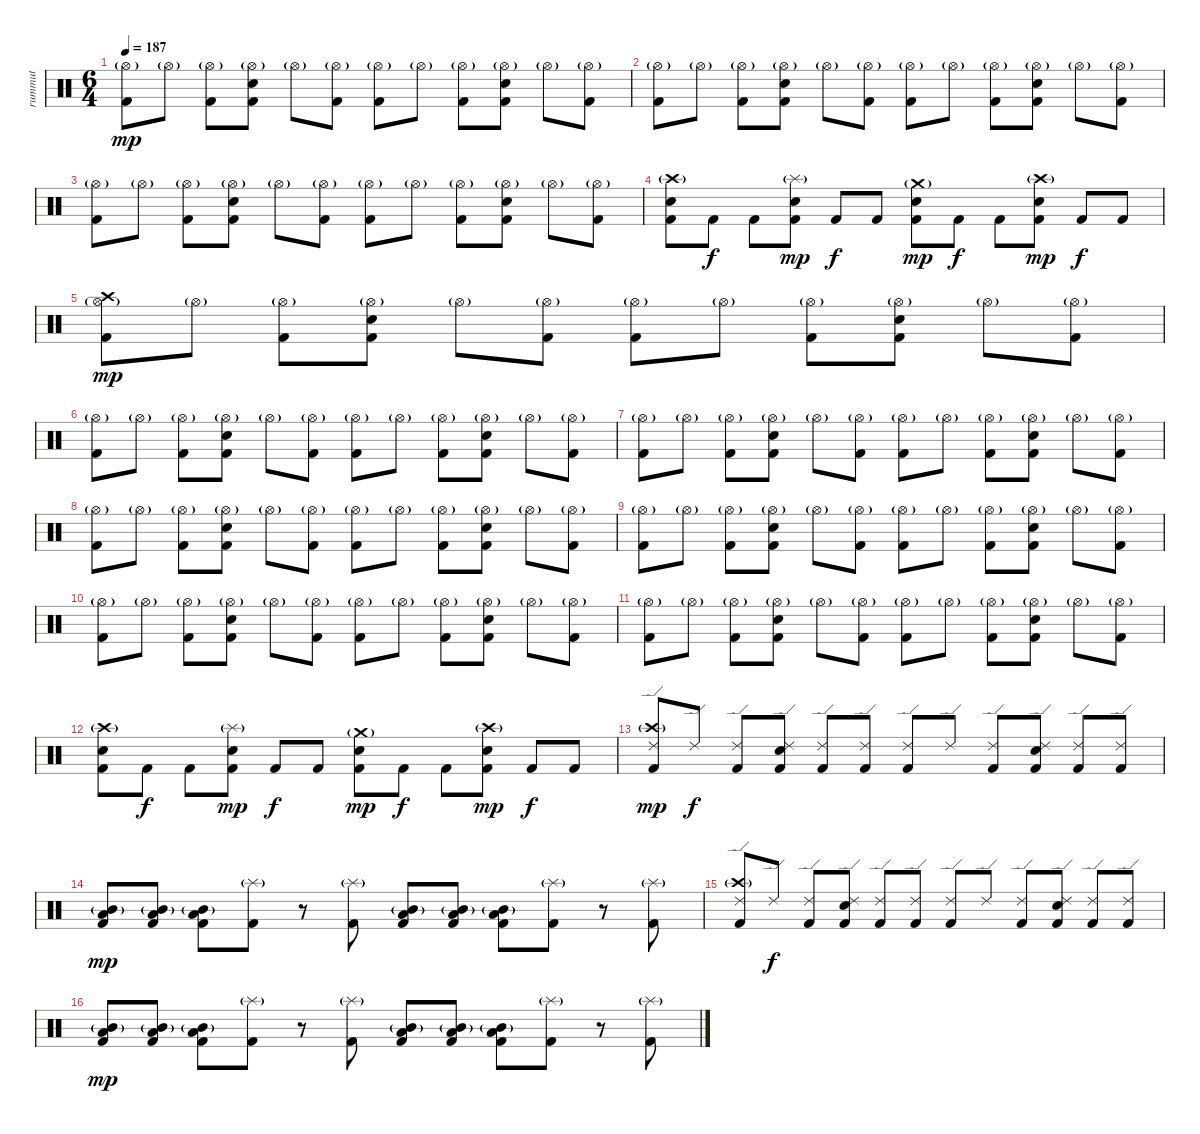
\track ("rummut" "rummut") {instrument percussion}
\staff {score}
\articulation defaults
\ts (6 4)
\tempo 187
\clef neutral
\ks c
("Kick (hit) 2" "Hi-Hat (open)"{g}).8{dy mp} "Hi-Hat (open)"{g}.8 ("Kick (hit) 2" "Hi-Hat (open)"{g}).8 ("Kick (hit) 2" "Hi-Hat (open)"{g} "Snare (hit) 2").8 "Hi-Hat (open)"{g}.8 ("Kick (hit) 2" "Hi-Hat (open)"{g}).8 ("Kick (hit) 2" "Hi-Hat (open)"{g}).8 "Hi-Hat (open)"{g}.8 ("Kick (hit) 2" "Hi-Hat (open)"{g}).8 ("Kick (hit) 2" "Hi-Hat (open)"{g} "Snare (hit) 2").8 "Hi-Hat (open)"{g}.8 ("Kick (hit) 2" "Hi-Hat (open)"{g}).8 |
("Kick (hit) 2" "Hi-Hat (open)"{g}).8 "Hi-Hat (open)"{g}.8 ("Kick (hit) 2" "Hi-Hat (open)"{g}).8 ("Kick (hit) 2" "Hi-Hat (open)"{g} "Snare (hit) 2").8 "Hi-Hat (open)"{g}.8 ("Kick (hit) 2" "Hi-Hat (open)"{g}).8 ("Kick (hit) 2" "Hi-Hat (open)"{g}).8 "Hi-Hat (open)"{g}.8 ("Kick (hit) 2" "Hi-Hat (open)"{g}).8 ("Kick (hit) 2" "Hi-Hat (open)"{g} "Snare (hit) 2").8 "Hi-Hat (open)"{g}.8 ("Kick (hit) 2" "Hi-Hat (open)"{g}).8 |
("Kick (hit) 2" "Hi-Hat (open)"{g}).8 "Hi-Hat (open)"{g}.8 ("Kick (hit) 2" "Hi-Hat (open)"{g}).8 ("Kick (hit) 2" "Hi-Hat (open)"{g} "Snare (hit) 2").8 "Hi-Hat (open)"{g}.8 ("Kick (hit) 2" "Hi-Hat (open)"{g}).8 ("Kick (hit) 2" "Hi-Hat (open)"{g}).8 "Hi-Hat (open)"{g}.8 ("Kick (hit) 2" "Hi-Hat (open)"{g}).8 ("Kick (hit) 2" "Hi-Hat (open)"{g} "Snare (hit) 2").8 "Hi-Hat (open)"{g}.8 ("Kick (hit) 2" "Hi-Hat (open)"{g}).8 |
("Kick (hit) 2" "Crash high (hit)"{g} "Snare (hit) 2").8 "Kick (hit) 2".8{dy f} "Kick (hit) 2".8 ("Kick (hit) 2" "Snare (hit) 2" "Splash (hit)"{g}).8{dy mp} "Kick (hit) 2".8{dy f} "Kick (hit) 2".8 ("Kick (hit) 2" "Snare (hit) 2" "Crash medium (hit)"{g}).8{dy mp} "Kick (hit) 2".8{dy f} "Kick (hit) 2".8 ("Kick (hit) 2" "Snare (hit) 2" "Crash high (hit)"{g}).8{dy mp} "Kick (hit) 2".8{dy f} "Kick (hit) 2".8 |
("Kick (hit) 2" "Hi-Hat (open)"{g} "Crash high (hit)").8{dy mp} "Hi-Hat (open)"{g}.8 ("Kick (hit) 2" "Hi-Hat (open)"{g}).8 ("Kick (hit) 2" "Hi-Hat (open)"{g} "Snare (hit) 2").8 "Hi-Hat (open)"{g}.8 ("Kick (hit) 2" "Hi-Hat (open)"{g}).8 ("Kick (hit) 2" "Hi-Hat (open)"{g}).8 "Hi-Hat (open)"{g}.8 ("Kick (hit) 2" "Hi-Hat (open)"{g}).8 ("Kick (hit) 2" "Hi-Hat (open)"{g} "Snare (hit) 2").8 "Hi-Hat (open)"{g}.8 ("Kick (hit) 2" "Hi-Hat (open)"{g}).8 |
("Kick (hit) 2" "Hi-Hat (open)"{g}).8 "Hi-Hat (open)"{g}.8 ("Kick (hit) 2" "Hi-Hat (open)"{g}).8 ("Kick (hit) 2" "Hi-Hat (open)"{g} "Snare (hit) 2").8 "Hi-Hat (open)"{g}.8 ("Kick (hit) 2" "Hi-Hat (open)"{g}).8 ("Kick (hit) 2" "Hi-Hat (open)"{g}).8 "Hi-Hat (open)"{g}.8 ("Kick (hit) 2" "Hi-Hat (open)"{g}).8 ("Kick (hit) 2" "Hi-Hat (open)"{g} "Snare (hit) 2").8 "Hi-Hat (open)"{g}.8 ("Kick (hit) 2" "Hi-Hat (open)"{g}).8 |
("Kick (hit) 2" "Hi-Hat (open)"{g}).8 "Hi-Hat (open)"{g}.8 ("Kick (hit) 2" "Hi-Hat (open)"{g}).8 ("Kick (hit) 2" "Hi-Hat (open)"{g} "Snare (hit) 2").8 "Hi-Hat (open)"{g}.8 ("Kick (hit) 2" "Hi-Hat (open)"{g}).8 ("Kick (hit) 2" "Hi-Hat (open)"{g}).8 "Hi-Hat (open)"{g}.8 ("Kick (hit) 2" "Hi-Hat (open)"{g}).8 ("Kick (hit) 2" "Hi-Hat (open)"{g} "Snare (hit) 2").8 "Hi-Hat (open)"{g}.8 ("Kick (hit) 2" "Hi-Hat (open)"{g}).8 |
("Kick (hit) 2" "Hi-Hat (open)"{g}).8 "Hi-Hat (open)"{g}.8 ("Kick (hit) 2" "Hi-Hat (open)"{g}).8 ("Kick (hit) 2" "Hi-Hat (open)"{g} "Snare (hit) 2").8 "Hi-Hat (open)"{g}.8 ("Kick (hit) 2" "Hi-Hat (open)"{g}).8 ("Kick (hit) 2" "Hi-Hat (open)"{g}).8 "Hi-Hat (open)"{g}.8 ("Kick (hit) 2" "Hi-Hat (open)"{g}).8 ("Kick (hit) 2" "Hi-Hat (open)"{g} "Snare (hit) 2").8 "Hi-Hat (open)"{g}.8 ("Kick (hit) 2" "Hi-Hat (open)"{g}).8 |
("Kick (hit) 2" "Hi-Hat (open)"{g}).8 "Hi-Hat (open)"{g}.8 ("Kick (hit) 2" "Hi-Hat (open)"{g}).8 ("Kick (hit) 2" "Hi-Hat (open)"{g} "Snare (hit) 2").8 "Hi-Hat (open)"{g}.8 ("Kick (hit) 2" "Hi-Hat (open)"{g}).8 ("Kick (hit) 2" "Hi-Hat (open)"{g}).8 "Hi-Hat (open)"{g}.8 ("Kick (hit) 2" "Hi-Hat (open)"{g}).8 ("Kick (hit) 2" "Hi-Hat (open)"{g} "Snare (hit) 2").8 "Hi-Hat (open)"{g}.8 ("Kick (hit) 2" "Hi-Hat (open)"{g}).8 |
("Kick (hit) 2" "Hi-Hat (open)"{g}).8 "Hi-Hat (open)"{g}.8 ("Kick (hit) 2" "Hi-Hat (open)"{g}).8 ("Kick (hit) 2" "Hi-Hat (open)"{g} "Snare (hit) 2").8 "Hi-Hat (open)"{g}.8 ("Kick (hit) 2" "Hi-Hat (open)"{g}).8 ("Kick (hit) 2" "Hi-Hat (open)"{g}).8 "Hi-Hat (open)"{g}.8 ("Kick (hit) 2" "Hi-Hat (open)"{g}).8 ("Kick (hit) 2" "Hi-Hat (open)"{g} "Snare (hit) 2").8 "Hi-Hat (open)"{g}.8 ("Kick (hit) 2" "Hi-Hat (open)"{g}).8 |
("Kick (hit) 2" "Hi-Hat (open)"{g}).8 "Hi-Hat (open)"{g}.8 ("Kick (hit) 2" "Hi-Hat (open)"{g}).8 ("Kick (hit) 2" "Hi-Hat (open)"{g} "Snare (hit) 2").8 "Hi-Hat (open)"{g}.8 ("Kick (hit) 2" "Hi-Hat (open)"{g}).8 ("Kick (hit) 2" "Hi-Hat (open)"{g}).8 "Hi-Hat (open)"{g}.8 ("Kick (hit) 2" "Hi-Hat (open)"{g}).8 ("Kick (hit) 2" "Hi-Hat (open)"{g} "Snare (hit) 2").8 "Hi-Hat (open)"{g}.8 ("Kick (hit) 2" "Hi-Hat (open)"{g}).8 |
("Kick (hit) 2" "Crash high (hit)"{g} "Snare (hit) 2").8 "Kick (hit) 2".8{dy f} "Kick (hit) 2".8 ("Kick (hit) 2" "Snare (hit) 2" "Splash (hit)"{g}).8{dy mp} "Kick (hit) 2".8{dy f} "Kick (hit) 2".8 ("Kick (hit) 2" "Snare (hit) 2" "Crash medium (hit)"{g}).8{dy mp} "Kick (hit) 2".8{dy f} "Kick (hit) 2".8 ("Kick (hit) 2" "Snare (hit) 2" "Crash high (hit)"{g}).8{dy mp} "Kick (hit) 2".8{dy f} "Kick (hit) 2".8 |
("Kick (hit) 2" "Ride (edge) 2" "Crash high (hit)"{g}).8{dy mp} "Ride (edge) 2".8{dy f} ("Kick (hit) 2" "Ride (edge) 2").8 ("Kick (hit) 2" "Ride (edge) 2" "Snare (hit) 2").8 ("Kick (hit) 2" "Ride (edge) 2").8 ("Kick (hit) 2" "Ride (edge) 2").8 ("Kick (hit) 2" "Ride (edge) 2").8 "Ride (edge) 2".8 ("Kick (hit) 2" "Ride (edge) 2").8 ("Kick (hit) 2" "Ride (edge) 2" "Snare (hit) 2").8 ("Kick (hit) 2" "Ride (edge) 2").8 ("Kick (hit) 2" "Ride (edge) 2").8 |
("Kick (hit) 2" "Low Tom (hit)" "Mid Tom (hit)"{g}).8{dy mp} ("Kick (hit) 2" "Low Tom (hit)" "Mid Tom (hit)"{g}).8 ("Kick (hit) 2" "Low Tom (hit)" "Mid Tom (hit)"{g}).8 ("Kick (hit) 2" "Splash (hit)"{g}).8 r.8 ("Kick (hit) 2" "Splash (hit)"{g}).8 ("Kick (hit) 2" "Low Tom (hit)" "Mid Tom (hit)"{g}).8 ("Kick (hit) 2" "Low Tom (hit)" "Mid Tom (hit)"{g}).8 ("Kick (hit) 2" "Low Tom (hit)" "Mid Tom (hit)"{g}).8 ("Kick (hit) 2" "Splash (hit)"{g}).8 r.8 ("Kick (hit) 2" "Splash (hit)"{g}).8 |
("Kick (hit) 2" "Ride (edge) 2" "Crash high (hit)"{g}).8 "Ride (edge) 2".8{dy f} ("Kick (hit) 2" "Ride (edge) 2").8 ("Kick (hit) 2" "Ride (edge) 2" "Snare (hit) 2").8 ("Kick (hit) 2" "Ride (edge) 2").8 ("Kick (hit) 2" "Ride (edge) 2").8 ("Kick (hit) 2" "Ride (edge) 2").8 "Ride (edge) 2".8 ("Kick (hit) 2" "Ride (edge) 2").8 ("Kick (hit) 2" "Ride (edge) 2" "Snare (hit) 2").8 ("Kick (hit) 2" "Ride (edge) 2").8 ("Kick (hit) 2" "Ride (edge) 2").8 |
("Kick (hit) 2" "Low Tom (hit)" "Mid Tom (hit)"{g}).8{dy mp} ("Kick (hit) 2" "Low Tom (hit)" "Mid Tom (hit)"{g}).8 ("Kick (hit) 2" "Low Tom (hit)" "Mid Tom (hit)"{g}).8 ("Kick (hit) 2" "Splash (hit)"{g}).8 r.8 ("Kick (hit) 2" "Splash (hit)"{g}).8 ("Kick (hit) 2" "Low Tom (hit)" "Mid Tom (hit)"{g}).8 ("Kick (hit) 2" "Low Tom (hit)" "Mid Tom (hit)"{g}).8 ("Kick (hit) 2" "Low Tom (hit)" "Mid Tom (hit)"{g}).8 ("Kick (hit) 2" "Splash (hit)"{g}).8 r.8 ("Kick (hit) 2" "Splash (hit)"{g}).8
